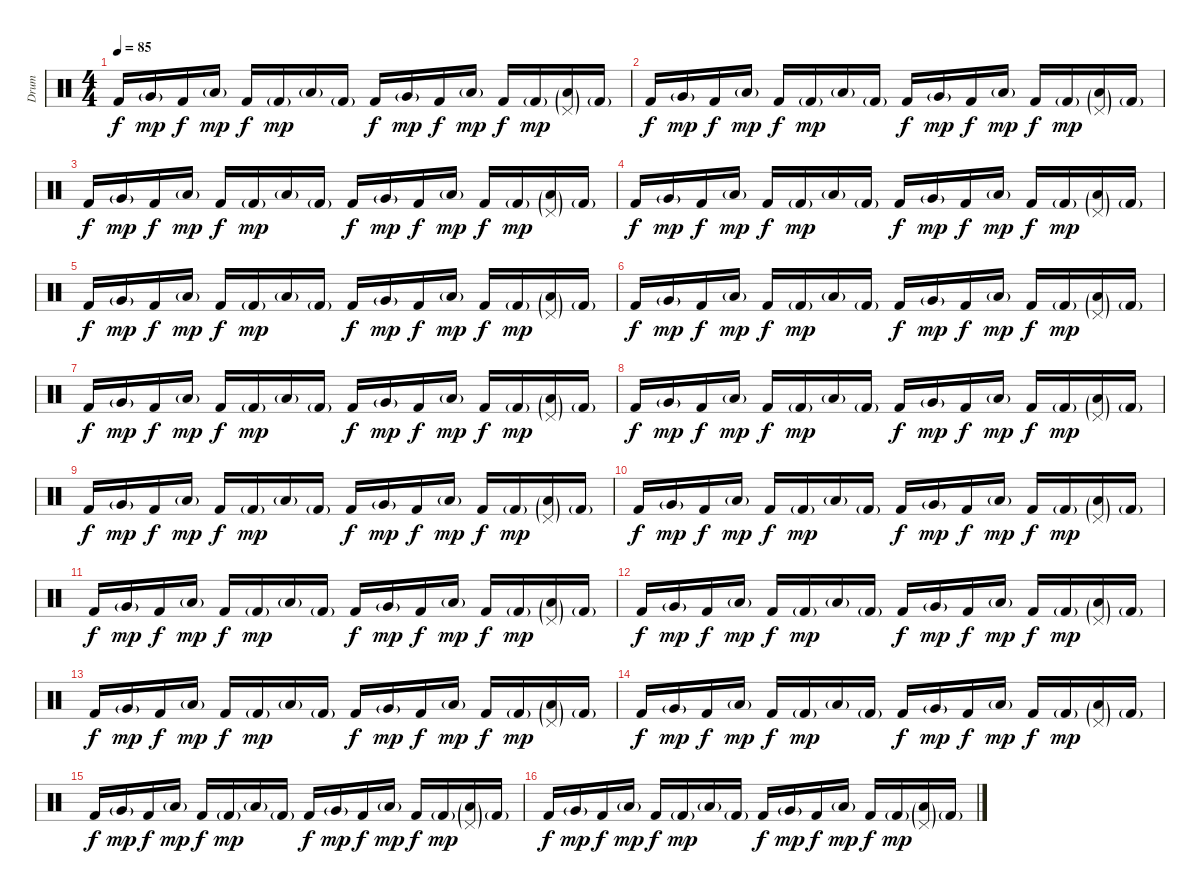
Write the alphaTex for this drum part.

\track ("Drum" "Drum") {instrument percussion}
\staff {score}
\articulation defaults
\ts (4 4)
\tempo 85
\clef neutral
\ks c "Kick (hit) 2".16{dy f} "Very Low Tom (hit)"{g}.16{dy mp} "Kick (hit) 2".16{dy f} "Low Floor Tom (hit)"{g}.16{dy mp} "Kick (hit) 2".16{dy f} "Kick (hit) 2"{g}.16{dy mp} "Low Floor Tom (hit)"{g}.16 "Kick (hit) 2"{g}.16 "Kick (hit) 2".16{dy f} "Very Low Tom (hit)"{g}.16{dy mp} "Kick (hit) 2".16{dy f} "Low Floor Tom (hit)"{g}.16{dy mp} "Kick (hit) 2".16{dy f} "Kick (hit) 2"{g}.16{dy mp}
("Low Floor Tom (hit)"{g} "Pedal Hi-Hat (hit)"{g}).16 "Kick (hit) 2"{g}.16 |
"Kick (hit) 2".16{dy f} "Very Low Tom (hit)"{g}.16{dy mp} "Kick (hit) 2".16{dy f} "Low Floor Tom (hit)"{g}.16{dy mp} "Kick (hit) 2".16{dy f} "Kick (hit) 2"{g}.16{dy mp} "Low Floor Tom (hit)"{g}.16 "Kick (hit) 2"{g}.16 "Kick (hit) 2".16{dy f} "Very Low Tom (hit)"{g}.16{dy mp} "Kick (hit) 2".16{dy f} "Low Floor Tom (hit)"{g}.16{dy mp} "Kick (hit) 2".16{dy f} "Kick (hit) 2"{g}.16{dy mp} ("Low Floor Tom (hit)"{g} "Pedal Hi-Hat (hit)"{g}).16 "Kick (hit) 2"{g}.16 |
"Kick (hit) 2".16{dy f} "Very Low Tom (hit)"{g}.16{dy mp} "Kick (hit) 2".16{dy f} "Low Floor Tom (hit)"{g}.16{dy mp} "Kick (hit) 2".16{dy f} "Kick (hit) 2"{g}.16{dy mp} "Low Floor Tom (hit)"{g}.16 "Kick (hit) 2"{g}.16 "Kick (hit) 2".16{dy f} "Very Low Tom (hit)"{g}.16{dy mp} "Kick (hit) 2".16{dy f} "Low Floor Tom (hit)"{g}.16{dy mp} "Kick (hit) 2".16{dy f} "Kick (hit) 2"{g}.16{dy mp} ("Low Floor Tom (hit)"{g} "Pedal Hi-Hat (hit)"{g}).16 "Kick (hit) 2"{g}.16 |
"Kick (hit) 2".16{dy f} "Very Low Tom (hit)"{g}.16{dy mp} "Kick (hit) 2".16{dy f} "Low Floor Tom (hit)"{g}.16{dy mp} "Kick (hit) 2".16{dy f} "Kick (hit) 2"{g}.16{dy mp} "Low Floor Tom (hit)"{g}.16 "Kick (hit) 2"{g}.16 "Kick (hit) 2".16{dy f} "Very Low Tom (hit)"{g}.16{dy mp} "Kick (hit) 2".16{dy f} "Low Floor Tom (hit)"{g}.16{dy mp} "Kick (hit) 2".16{dy f} "Kick (hit) 2"{g}.16{dy mp} ("Low Floor Tom (hit)"{g} "Pedal Hi-Hat (hit)"{g}).16 "Kick (hit) 2"{g}.16 |
"Kick (hit) 2".16{dy f} "Very Low Tom (hit)"{g}.16{dy mp} "Kick (hit) 2".16{dy f} "Low Floor Tom (hit)"{g}.16{dy mp} "Kick (hit) 2".16{dy f} "Kick (hit) 2"{g}.16{dy mp} "Low Floor Tom (hit)"{g}.16 "Kick (hit) 2"{g}.16 "Kick (hit) 2".16{dy f} "Very Low Tom (hit)"{g}.16{dy mp} "Kick (hit) 2".16{dy f} "Low Floor Tom (hit)"{g}.16{dy mp} "Kick (hit) 2".16{dy f} "Kick (hit) 2"{g}.16{dy mp} ("Low Floor Tom (hit)"{g} "Pedal Hi-Hat (hit)"{g}).16 "Kick (hit) 2"{g}.16 |
"Kick (hit) 2".16{dy f} "Very Low Tom (hit)"{g}.16{dy mp} "Kick (hit) 2".16{dy f} "Low Floor Tom (hit)"{g}.16{dy mp} "Kick (hit) 2".16{dy f} "Kick (hit) 2"{g}.16{dy mp} "Low Floor Tom (hit)"{g}.16 "Kick (hit) 2"{g}.16 "Kick (hit) 2".16{dy f} "Very Low Tom (hit)"{g}.16{dy mp} "Kick (hit) 2".16{dy f} "Low Floor Tom (hit)"{g}.16{dy mp} "Kick (hit) 2".16{dy f} "Kick (hit) 2"{g}.16{dy mp} ("Low Floor Tom (hit)"{g} "Pedal Hi-Hat (hit)"{g}).16 "Kick (hit) 2"{g}.16 |
"Kick (hit) 2".16{dy f} "Very Low Tom (hit)"{g}.16{dy mp} "Kick (hit) 2".16{dy f} "Low Floor Tom (hit)"{g}.16{dy mp} "Kick (hit) 2".16{dy f} "Kick (hit) 2"{g}.16{dy mp} "Low Floor Tom (hit)"{g}.16 "Kick (hit) 2"{g}.16 "Kick (hit) 2".16{dy f} "Very Low Tom (hit)"{g}.16{dy mp} "Kick (hit) 2".16{dy f} "Low Floor Tom (hit)"{g}.16{dy mp} "Kick (hit) 2".16{dy f} "Kick (hit) 2"{g}.16{dy mp} ("Low Floor Tom (hit)"{g} "Pedal Hi-Hat (hit)"{g}).16 "Kick (hit) 2"{g}.16 |
"Kick (hit) 2".16{dy f} "Very Low Tom (hit)"{g}.16{dy mp} "Kick (hit) 2".16{dy f} "Low Floor Tom (hit)"{g}.16{dy mp} "Kick (hit) 2".16{dy f} "Kick (hit) 2"{g}.16{dy mp} "Low Floor Tom (hit)"{g}.16 "Kick (hit) 2"{g}.16 "Kick (hit) 2".16{dy f} "Very Low Tom (hit)"{g}.16{dy mp} "Kick (hit) 2".16{dy f} "Low Floor Tom (hit)"{g}.16{dy mp} "Kick (hit) 2".16{dy f} "Kick (hit) 2"{g}.16{dy mp} ("Low Floor Tom (hit)"{g} "Pedal Hi-Hat (hit)"{g}).16 "Kick (hit) 2"{g}.16 |
"Kick (hit) 2".16{dy f} "Very Low Tom (hit)"{g}.16{dy mp} "Kick (hit) 2".16{dy f} "Low Floor Tom (hit)"{g}.16{dy mp} "Kick (hit) 2".16{dy f} "Kick (hit) 2"{g}.16{dy mp} "Low Floor Tom (hit)"{g}.16 "Kick (hit) 2"{g}.16 "Kick (hit) 2".16{dy f} "Very Low Tom (hit)"{g}.16{dy mp} "Kick (hit) 2".16{dy f} "Low Floor Tom (hit)"{g}.16{dy mp} "Kick (hit) 2".16{dy f} "Kick (hit) 2"{g}.16{dy mp} ("Low Floor Tom (hit)"{g} "Pedal Hi-Hat (hit)"{g}).16 "Kick (hit) 2"{g}.16 |
"Kick (hit) 2".16{dy f} "Very Low Tom (hit)"{g}.16{dy mp} "Kick (hit) 2".16{dy f} "Low Floor Tom (hit)"{g}.16{dy mp} "Kick (hit) 2".16{dy f} "Kick (hit) 2"{g}.16{dy mp} "Low Floor Tom (hit)"{g}.16 "Kick (hit) 2"{g}.16 "Kick (hit) 2".16{dy f} "Very Low Tom (hit)"{g}.16{dy mp} "Kick (hit) 2".16{dy f} "Low Floor Tom (hit)"{g}.16{dy mp} "Kick (hit) 2".16{dy f} "Kick (hit) 2"{g}.16{dy mp} ("Low Floor Tom (hit)"{g} "Pedal Hi-Hat (hit)"{g}).16 "Kick (hit) 2"{g}.16 |
"Kick (hit) 2".16{dy f} "Very Low Tom (hit)"{g}.16{dy mp} "Kick (hit) 2".16{dy f} "Low Floor Tom (hit)"{g}.16{dy mp} "Kick (hit) 2".16{dy f} "Kick (hit) 2"{g}.16{dy mp} "Low Floor Tom (hit)"{g}.16 "Kick (hit) 2"{g}.16 "Kick (hit) 2".16{dy f} "Very Low Tom (hit)"{g}.16{dy mp} "Kick (hit) 2".16{dy f} "Low Floor Tom (hit)"{g}.16{dy mp} "Kick (hit) 2".16{dy f} "Kick (hit) 2"{g}.16{dy mp} ("Low Floor Tom (hit)"{g} "Pedal Hi-Hat (hit)"{g}).16 "Kick (hit) 2"{g}.16 |
"Kick (hit) 2".16{dy f} "Very Low Tom (hit)"{g}.16{dy mp} "Kick (hit) 2".16{dy f} "Low Floor Tom (hit)"{g}.16{dy mp} "Kick (hit) 2".16{dy f} "Kick (hit) 2"{g}.16{dy mp} "Low Floor Tom (hit)"{g}.16 "Kick (hit) 2"{g}.16 "Kick (hit) 2".16{dy f} "Very Low Tom (hit)"{g}.16{dy mp} "Kick (hit) 2".16{dy f} "Low Floor Tom (hit)"{g}.16{dy mp} "Kick (hit) 2".16{dy f} "Kick (hit) 2"{g}.16{dy mp} ("Low Floor Tom (hit)"{g} "Pedal Hi-Hat (hit)"{g}).16 "Kick (hit) 2"{g}.16 |
"Kick (hit) 2".16{dy f} "Very Low Tom (hit)"{g}.16{dy mp} "Kick (hit) 2".16{dy f} "Low Floor Tom (hit)"{g}.16{dy mp} "Kick (hit) 2".16{dy f} "Kick (hit) 2"{g}.16{dy mp} "Low Floor Tom (hit)"{g}.16 "Kick (hit) 2"{g}.16 "Kick (hit) 2".16{dy f} "Very Low Tom (hit)"{g}.16{dy mp} "Kick (hit) 2".16{dy f} "Low Floor Tom (hit)"{g}.16{dy mp} "Kick (hit) 2".16{dy f} "Kick (hit) 2"{g}.16{dy mp} ("Low Floor Tom (hit)"{g} "Pedal Hi-Hat (hit)"{g}).16 "Kick (hit) 2"{g}.16 |
"Kick (hit) 2".16{dy f} "Very Low Tom (hit)"{g}.16{dy mp} "Kick (hit) 2".16{dy f} "Low Floor Tom (hit)"{g}.16{dy mp} "Kick (hit) 2".16{dy f} "Kick (hit) 2"{g}.16{dy mp} "Low Floor Tom (hit)"{g}.16 "Kick (hit) 2"{g}.16 "Kick (hit) 2".16{dy f} "Very Low Tom (hit)"{g}.16{dy mp} "Kick (hit) 2".16{dy f} "Low Floor Tom (hit)"{g}.16{dy mp} "Kick (hit) 2".16{dy f} "Kick (hit) 2"{g}.16{dy mp} ("Low Floor Tom (hit)"{g} "Pedal Hi-Hat (hit)"{g}).16 "Kick (hit) 2"{g}.16 |
"Kick (hit) 2".16{dy f} "Very Low Tom (hit)"{g}.16{dy mp} "Kick (hit) 2".16{dy f} "Low Floor Tom (hit)"{g}.16{dy mp} "Kick (hit) 2".16{dy f} "Kick (hit) 2"{g}.16{dy mp} "Low Floor Tom (hit)"{g}.16 "Kick (hit) 2"{g}.16 "Kick (hit) 2".16{dy f} "Very Low Tom (hit)"{g}.16{dy mp} "Kick (hit) 2".16{dy f} "Low Floor Tom (hit)"{g}.16{dy mp} "Kick (hit) 2".16{dy f} "Kick (hit) 2"{g}.16{dy mp} ("Low Floor Tom (hit)"{g} "Pedal Hi-Hat (hit)"{g}).16 "Kick (hit) 2"{g}.16 |
"Kick (hit) 2".16{dy f} "Very Low Tom (hit)"{g}.16{dy mp} "Kick (hit) 2".16{dy f} "Low Floor Tom (hit)"{g}.16{dy mp} "Kick (hit) 2".16{dy f} "Kick (hit) 2"{g}.16{dy mp} "Low Floor Tom (hit)"{g}.16 "Kick (hit) 2"{g}.16 "Kick (hit) 2".16{dy f} "Very Low Tom (hit)"{g}.16{dy mp} "Kick (hit) 2".16{dy f} "Low Floor Tom (hit)"{g}.16{dy mp} "Kick (hit) 2".16{dy f} "Kick (hit) 2"{g}.16{dy mp} ("Low Floor Tom (hit)"{g} "Pedal Hi-Hat (hit)"{g}).16 "Kick (hit) 2"{g}.16
